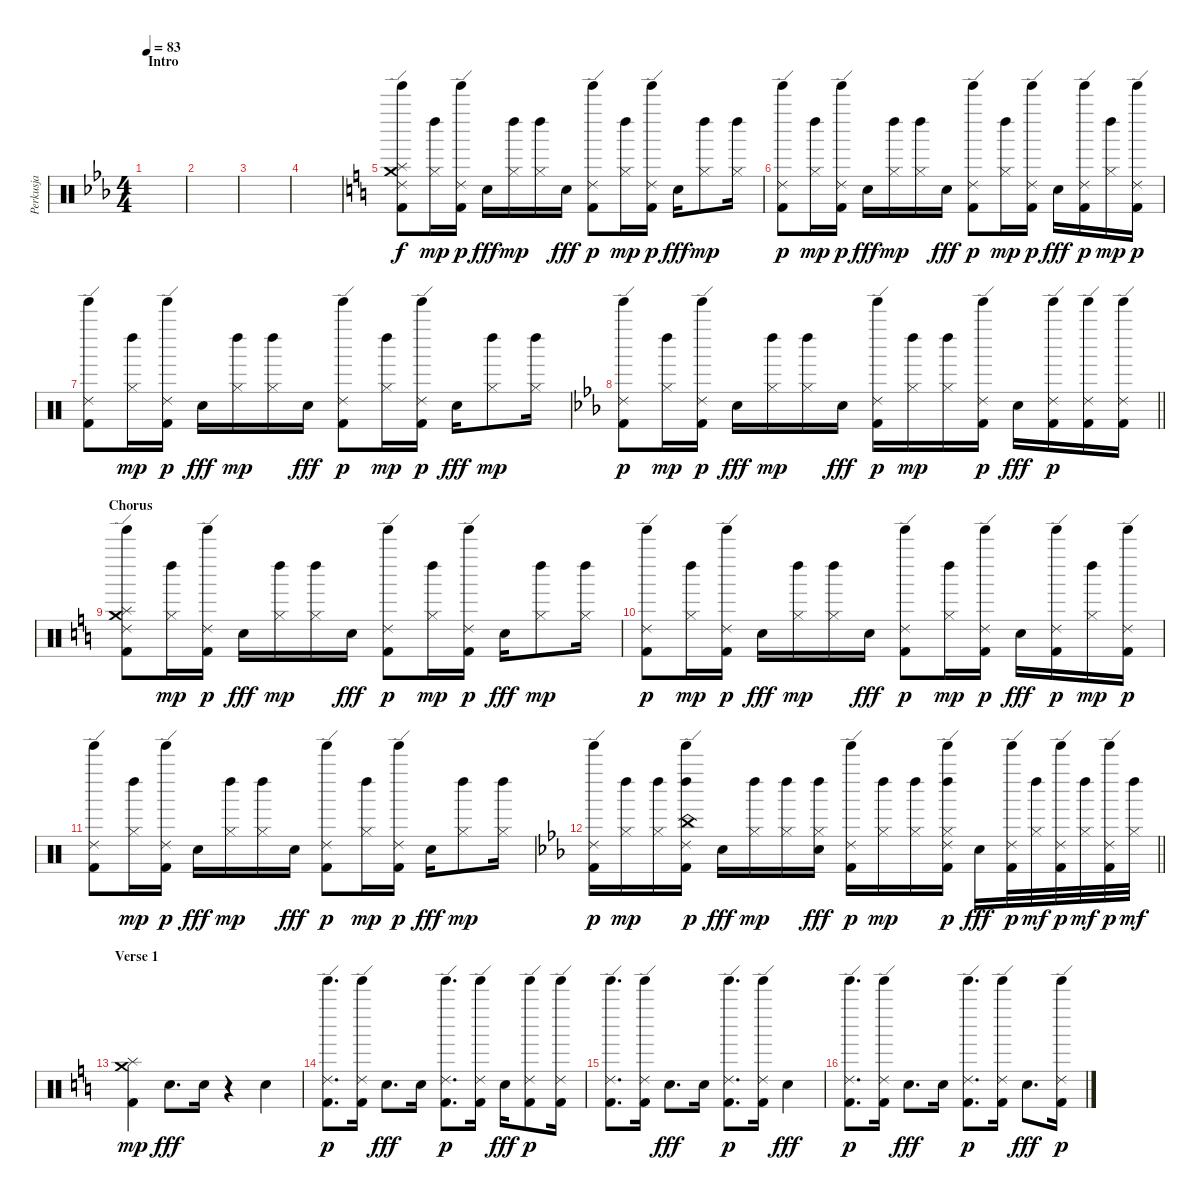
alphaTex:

\track ("Perkusja" "Perkusja") {instrument percussion}
\staff {score}
\articulation defaults
\ts (4 4)
\section ("" "Intro")
\tempo 83
\clef neutral
\ks eb
|
|
|
|
\ks c
("Crash medium (hit)" "Splash (hit)" "Tinkle Bell (hit)" "Ride (edge) 2" "Kick (hit) 2").8 ("Hi-Hat (closed)" "Left Maraca (hit)").16{dy mp} ("Tinkle Bell (hit)" "Ride (edge) 2" "Kick (hit) 2").16{dy p} "Hand Clap (hit)".16{dy fff} ("Hi-Hat (closed)" "Left Maraca (hit)").16{dy mp} ("Hi-Hat (closed)" "Left Maraca (hit)").16 "Hand Clap (hit)".16{dy fff} ("Tinkle Bell (hit)" "Ride (edge) 2" "Kick (hit) 2").8{dy p} ("Hi-Hat (closed)" "Left Maraca (hit)").16{dy mp} ("Tinkle Bell (hit)" "Ride (edge) 2" "Kick (hit) 2").16{dy p} "Hand Clap (hit)".16{dy fff} ("Hi-Hat (closed)" "Left Maraca (hit)").8{dy mp} ("Hi-Hat (closed)" "Left Maraca (hit)").16 |
("Tinkle Bell (hit)" "Ride (edge) 2" "Kick (hit) 2").8{dy p} ("Hi-Hat (closed)" "Left Maraca (hit)").16{dy mp} ("Tinkle Bell (hit)" "Ride (edge) 2" "Kick (hit) 2").16{dy p} "Hand Clap (hit)".16{dy fff} ("Hi-Hat (closed)" "Left Maraca (hit)").16{dy mp} ("Hi-Hat (closed)" "Left Maraca (hit)").16 "Hand Clap (hit)".16{dy fff} ("Tinkle Bell (hit)" "Ride (edge) 2" "Kick (hit) 2").8{dy p} ("Hi-Hat (closed)" "Left Maraca (hit)").16{dy mp} ("Tinkle Bell (hit)" "Ride (edge) 2" "Kick (hit) 2").16{dy p} "Hand Clap (hit)".16{dy fff} ("Tinkle Bell (hit)" "Ride (edge) 2" "Kick (hit) 2").16{dy p} ("Hi-Hat (closed)" "Left Maraca (hit)").16{dy mp} ("Tinkle Bell (hit)" "Ride (edge) 2" "Kick (hit) 2").16{dy p} |
("Tinkle Bell (hit)" "Ride (edge) 2" "Kick (hit) 2").8 ("Hi-Hat (closed)" "Left Maraca (hit)").16{dy mp} ("Tinkle Bell (hit)" "Ride (edge) 2" "Kick (hit) 2").16{dy p} "Hand Clap (hit)".16{dy fff} ("Hi-Hat (closed)" "Left Maraca (hit)").16{dy mp} ("Hi-Hat (closed)" "Left Maraca (hit)").16 "Hand Clap (hit)".16{dy fff} ("Tinkle Bell (hit)" "Ride (edge) 2" "Kick (hit) 2").8{dy p} ("Hi-Hat (closed)" "Left Maraca (hit)").16{dy mp} ("Tinkle Bell (hit)" "Ride (edge) 2" "Kick (hit) 2").16{dy p} "Hand Clap (hit)".16{dy fff} ("Hi-Hat (closed)" "Left Maraca (hit)").8{dy mp} ("Hi-Hat (closed)" "Left Maraca (hit)").16 |
\barLineRight lightlight
\ks eb
("Tinkle Bell (hit)" "Ride (edge) 2" "Kick (hit) 2").8{dy p} ("Hi-Hat (closed)" "Left Maraca (hit)").16{dy mp} ("Tinkle Bell (hit)" "Ride (edge) 2" "Kick (hit) 2").16{dy p} "Hand Clap (hit)".16{dy fff} ("Hi-Hat (closed)" "Left Maraca (hit)").16{dy mp} ("Hi-Hat (closed)" "Left Maraca (hit)").16 "Hand Clap (hit)".16{dy fff} ("Tinkle Bell (hit)" "Ride (edge) 2" "Kick (hit) 2").16{dy p} ("Hi-Hat (closed)" "Left Maraca (hit)").16{dy mp} ("Hi-Hat (closed)" "Left Maraca (hit)").16 ("Tinkle Bell (hit)" "Ride (edge) 2" "Kick (hit) 2").16{dy p} "Hand Clap (hit)".16{dy fff} ("Tinkle Bell (hit)" "Ride (edge) 2" "Kick (hit) 2").16{dy p} ("Tinkle Bell (hit)" "Ride (edge) 2" "Kick (hit) 2").16 ("Tinkle Bell (hit)" "Ride (edge) 2" "Kick (hit) 2").16 |
\section ("" "Chorus")
\ks c
("Crash medium (hit)" "Splash (hit)" "Tinkle Bell (hit)" "Ride (edge) 2" "Kick (hit) 2").8 ("Hi-Hat (closed)" "Left Maraca (hit)").16{dy mp} ("Tinkle Bell (hit)" "Ride (edge) 2" "Kick (hit) 2").16{dy p} "Hand Clap (hit)".16{dy fff} ("Hi-Hat (closed)" "Left Maraca (hit)").16{dy mp} ("Hi-Hat (closed)" "Left Maraca (hit)").16 "Hand Clap (hit)".16{dy fff} ("Tinkle Bell (hit)" "Ride (edge) 2" "Kick (hit) 2").8{dy p} ("Hi-Hat (closed)" "Left Maraca (hit)").16{dy mp} ("Tinkle Bell (hit)" "Ride (edge) 2" "Kick (hit) 2").16{dy p} "Hand Clap (hit)".16{dy fff} ("Hi-Hat (closed)" "Left Maraca (hit)").8{dy mp} ("Hi-Hat (closed)" "Left Maraca (hit)").16 |
("Tinkle Bell (hit)" "Ride (edge) 2" "Kick (hit) 2").8{dy p} ("Hi-Hat (closed)" "Left Maraca (hit)").16{dy mp} ("Tinkle Bell (hit)" "Ride (edge) 2" "Kick (hit) 2").16{dy p} "Hand Clap (hit)".16{dy fff} ("Hi-Hat (closed)" "Left Maraca (hit)").16{dy mp} ("Hi-Hat (closed)" "Left Maraca (hit)").16 "Hand Clap (hit)".16{dy fff} ("Tinkle Bell (hit)" "Ride (edge) 2" "Kick (hit) 2").8{dy p} ("Hi-Hat (closed)" "Left Maraca (hit)").16{dy mp} ("Tinkle Bell (hit)" "Ride (edge) 2" "Kick (hit) 2").16{dy p} "Hand Clap (hit)".16{dy fff} ("Tinkle Bell (hit)" "Ride (edge) 2" "Kick (hit) 2").16{dy p} ("Hi-Hat (closed)" "Left Maraca (hit)").16{dy mp} ("Tinkle Bell (hit)" "Ride (edge) 2" "Kick (hit) 2").16{dy p} |
("Tinkle Bell (hit)" "Ride (edge) 2" "Kick (hit) 2").8 ("Hi-Hat (closed)" "Left Maraca (hit)").16{dy mp} ("Tinkle Bell (hit)" "Ride (edge) 2" "Kick (hit) 2").16{dy p} "Hand Clap (hit)".16{dy fff} ("Hi-Hat (closed)" "Left Maraca (hit)").16{dy mp} ("Hi-Hat (closed)" "Left Maraca (hit)").16 "Hand Clap (hit)".16{dy fff} ("Tinkle Bell (hit)" "Ride (edge) 2" "Kick (hit) 2").8{dy p} ("Hi-Hat (closed)" "Left Maraca (hit)").16{dy mp} ("Tinkle Bell (hit)" "Ride (edge) 2" "Kick (hit) 2").16{dy p} "Hand Clap (hit)".16{dy fff} ("Hi-Hat (closed)" "Left Maraca (hit)").8{dy mp} ("Hi-Hat (closed)" "Left Maraca (hit)").16 |
\barLineRight lightlight
\ks eb
("Tinkle Bell (hit)" "Ride (edge) 2" "Kick (hit) 2").16{dy p} ("Hi-Hat (closed)" "Left Maraca (hit)").16{dy mp} ("Hi-Hat (closed)" "Left Maraca (hit)").16 ("China (hit)" "Left Maraca (hit)" "Tinkle Bell (hit)" "Ride (edge) 2" "Kick (hit) 2").16{dy p} "Hand Clap (hit)".16{dy fff} ("Hi-Hat (closed)" "Left Maraca (hit)").16{dy mp} ("Hi-Hat (closed)" "Left Maraca (hit)").16 ("Hi-Hat (closed)" "Left Maraca (hit)" "Hand Clap (hit)").16{dy fff} ("Tinkle Bell (hit)" "Ride (edge) 2" "Kick (hit) 2").16{dy p} ("Hi-Hat (closed)" "Left Maraca (hit)").16{dy mp} ("Hi-Hat (closed)" "Left Maraca (hit)").16 ("Hi-Hat (closed)" "Left Maraca (hit)" "Tinkle Bell (hit)" "Ride (edge) 2" "Kick (hit) 2").16{dy p} "Hand Clap (hit)".16{dy fff} ("Tinkle Bell (hit)" "Ride (edge) 2" "Kick (hit) 2").32{dy p} ("Hi-Hat (closed)" "Left Maraca (hit)").32{dy mf} ("Tinkle Bell (hit)" "Ride (edge) 2" "Kick (hit) 2").32{dy p} ("Hi-Hat (closed)" "Left Maraca (hit)").32{dy mf} ("Tinkle Bell (hit)" "Ride (edge) 2" "Kick (hit) 2").32{dy p} ("Hi-Hat (closed)" "Left Maraca (hit)").32{dy mf} |
\section ("" "Verse 1")
\ks c
("Crash medium (hit)" "Splash (hit)" "Kick (hit) 2").4{dy mp} "Hand Clap (hit)".8{d dy fff} "Hand Clap (hit)".16 r.4 "Hand Clap (hit)".4 |
("Tinkle Bell (hit)" "Ride (edge) 2" "Kick (hit) 2").8{d dy p} ("Tinkle Bell (hit)" "Ride (edge) 2" "Kick (hit) 2").16 "Hand Clap (hit)".8{d dy fff} "Hand Clap (hit)".16 ("Tinkle Bell (hit)" "Ride (edge) 2" "Kick (hit) 2").8{d dy p} ("Tinkle Bell (hit)" "Ride (edge) 2" "Kick (hit) 2").16 "Hand Clap (hit)".16{dy fff} ("Tinkle Bell (hit)" "Ride (edge) 2" "Kick (hit) 2").8{dy p} ("Tinkle Bell (hit)" "Ride (edge) 2" "Kick (hit) 2").16 |
("Tinkle Bell (hit)" "Ride (edge) 2" "Kick (hit) 2").8{d} ("Tinkle Bell (hit)" "Ride (edge) 2" "Kick (hit) 2").16 "Hand Clap (hit)".8{d dy fff} "Hand Clap (hit)".16 ("Tinkle Bell (hit)" "Ride (edge) 2" "Kick (hit) 2").8{d dy p} ("Tinkle Bell (hit)" "Ride (edge) 2" "Kick (hit) 2").16 "Hand Clap (hit)".4{dy fff} |
("Tinkle Bell (hit)" "Ride (edge) 2" "Kick (hit) 2").8{d dy p} ("Tinkle Bell (hit)" "Ride (edge) 2" "Kick (hit) 2").16 "Hand Clap (hit)".8{d dy fff} "Hand Clap (hit)".16 ("Tinkle Bell (hit)" "Ride (edge) 2" "Kick (hit) 2").8{d dy p} ("Tinkle Bell (hit)" "Ride (edge) 2" "Kick (hit) 2").16 "Hand Clap (hit)".8{d dy fff} ("Tinkle Bell (hit)" "Ride (edge) 2" "Kick (hit) 2").16{dy p}
